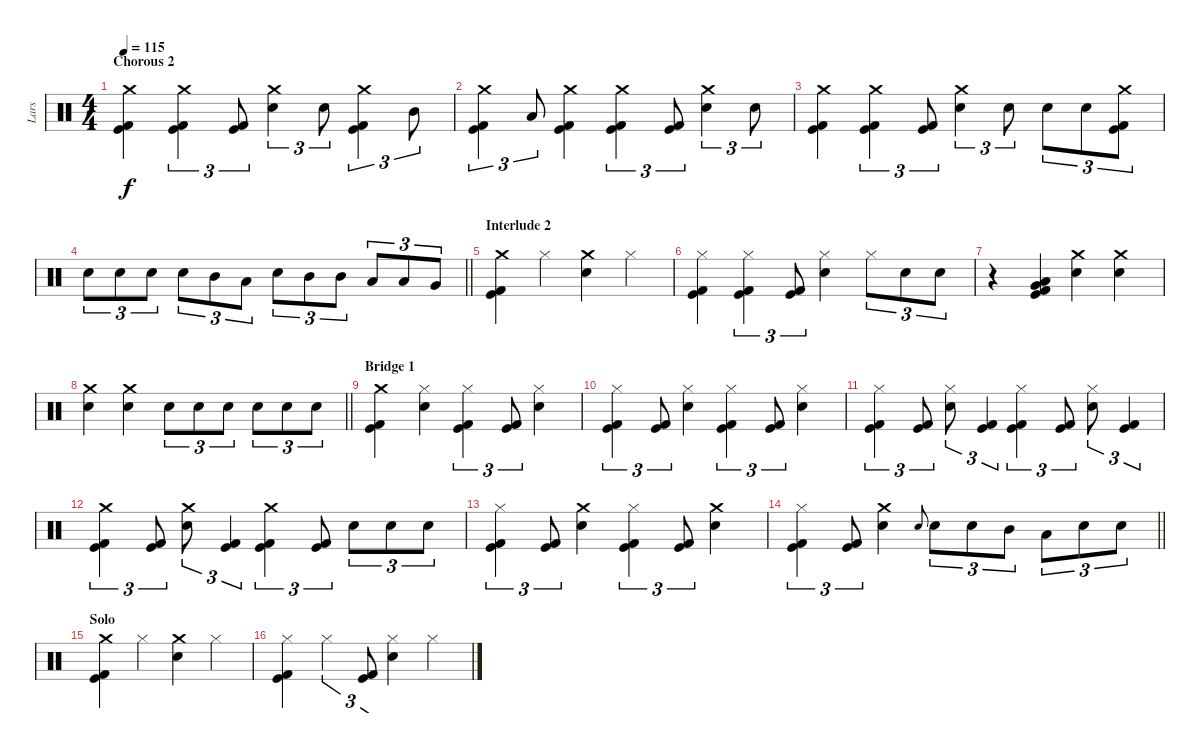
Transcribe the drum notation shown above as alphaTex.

\track ("Lars" "Lars") {instrument percussion}
\staff {score}
\articulation defaults
\ts (4 4)
\section ("" "Chorous 2")
\tempo 115
\clef neutral
\ks c
("Crash medium (hit)" "Kick (hit)" "Kick (hit) 2").4{dy f} ("Crash medium (hit)" "Kick (hit)" "Kick (hit) 2").4{tu (3 2)} ("Kick (hit)" "Kick (hit) 2").8{tu (3 2)} ("Crash medium (hit)" "Electric Snare (hit)").4{tu (3 2)} "Electric Snare (hit)".8{tu (3 2)} ("Crash medium (hit)" "Kick (hit)" "Kick (hit) 2").4{tu (3 2)} "Mid Tom (hit)".8{tu (3 2)} |
("Crash medium (hit)" "Kick (hit)" "Kick (hit) 2").4{tu (3 2)} "Low Tom (hit)".8{tu (3 2)} ("Crash medium (hit)" "Kick (hit)" "Kick (hit) 2").4 ("Crash medium (hit)" "Kick (hit)" "Kick (hit) 2").4{tu (3 2)} ("Kick (hit)" "Kick (hit) 2").8{tu (3 2)} ("Crash medium (hit)" "Electric Snare (hit)").4{tu (3 2)} "Electric Snare (hit)".8{tu (3 2)} |
("Crash medium (hit)" "Kick (hit)" "Kick (hit) 2").4 ("Crash medium (hit)" "Kick (hit)" "Kick (hit) 2").4{tu (3 2)} ("Kick (hit)" "Kick (hit) 2").8{tu (3 2)} ("Crash medium (hit)" "Electric Snare (hit)").4{tu (3 2)} "Electric Snare (hit)".8{tu (3 2)} "Electric Snare (hit)".8{tu (3 2)} "Electric Snare (hit)".8{tu (3 2)} ("Crash medium (hit)" "Kick (hit)" "Kick (hit) 2").8{tu (3 2)} |
\barLineRight lightlight "Electric Snare (hit)".8{tu (3 2)} "Electric Snare (hit)".8{tu (3 2)} "Electric Snare (hit)".8{tu (3 2)} "Electric Snare (hit)".8{tu (3 2)} "Mid Tom (hit)".8{tu (3 2)} "Low Tom (hit)".8{tu (3 2)} "Electric Snare (hit)".8{tu (3 2)} "Mid Tom (hit)".8{tu (3 2)} "Mid Tom (hit)".8{tu (3 2)} "Low Tom (hit)".8{tu (3 2)} "Low Tom (hit)".8{tu (3 2)} "Very Low Tom (hit)".8{tu (3 2)}
|
\section ("" "Interlude 2")
("Crash medium (hit)" "Kick (hit)" "Kick (hit) 2").4 "Hi-Hat (closed)".4 ("Crash medium (hit)" "Electric Snare (hit)").4 "Hi-Hat (closed)".4 |
("Hi-Hat (closed)" "Kick (hit)" "Kick (hit) 2").4 ("Hi-Hat (closed)" "Kick (hit)" "Kick (hit) 2").4{tu (3 2)} ("Kick (hit)" "Kick (hit) 2").8{tu (3 2)} ("Hi-Hat (closed)" "Electric Snare (hit)").4 "Hi-Hat (closed)".8{tu (3 2)} "Electric Snare (hit)".8{tu (3 2)} "Electric Snare (hit)".8{tu (3 2)} |
r.4 ("Very Low Tom (hit)" "Low Floor Tom (hit)" "Kick (hit)" "Kick (hit) 2").4 ("Crash medium (hit)" "Electric Snare (hit)").4 ("Crash medium (hit)" "Electric Snare (hit)").4 |
\barLineRight lightlight
("Crash medium (hit)" "Electric Snare (hit)").4 ("Crash medium (hit)" "Electric Snare (hit)").4 "Electric Snare (hit)".8{tu (3 2)} "Electric Snare (hit)".8{tu (3 2)} "Electric Snare (hit)".8{tu (3 2)} "Electric Snare (hit)".8{tu (3 2)} "Electric Snare (hit)".8{tu (3 2)} "Electric Snare (hit)".8{tu (3 2)} |
\section ("" "Bridge 1")
("Crash medium (hit)" "Kick (hit)" "Kick (hit) 2").4 ("Hi-Hat (closed)" "Electric Snare (hit)").4 ("Hi-Hat (closed)" "Kick (hit)" "Kick (hit) 2").4{tu (3 2)} ("Kick (hit)" "Kick (hit) 2").8{tu (3 2)} ("Hi-Hat (closed)" "Electric Snare (hit)").4 |
("Hi-Hat (closed)" "Kick (hit)" "Kick (hit) 2").4{tu (3 2)} ("Kick (hit)" "Kick (hit) 2").8{tu (3 2)} ("Hi-Hat (closed)" "Electric Snare (hit)").4 ("Hi-Hat (closed)" "Kick (hit)" "Kick (hit) 2").4{tu (3 2)} ("Kick (hit)" "Kick (hit) 2").8{tu (3 2)} ("Hi-Hat (closed)" "Electric Snare (hit)").4 |
("Hi-Hat (closed)" "Kick (hit)" "Kick (hit) 2").4{tu (3 2)} ("Kick (hit)" "Kick (hit) 2").8{tu (3 2)} ("Hi-Hat (closed)" "Electric Snare (hit)").8{tu (3 2)} ("Kick (hit)" "Kick (hit) 2").4{tu (3 2)} ("Hi-Hat (closed)" "Kick (hit)" "Kick (hit) 2").4{tu (3 2)} ("Kick (hit)" "Kick (hit) 2").8{tu (3 2)} ("Hi-Hat (closed)" "Electric Snare (hit)").8{tu (3 2)} ("Kick (hit)" "Kick (hit) 2").4{tu (3 2)} |
("Crash medium (hit)" "Kick (hit)" "Kick (hit) 2").4{tu (3 2)} ("Kick (hit)" "Kick (hit) 2").8{tu (3 2)} ("Crash medium (hit)" "Electric Snare (hit)").8{tu (3 2)} ("Kick (hit)" "Kick (hit) 2").4{tu (3 2)} ("Crash medium (hit)" "Kick (hit)" "Kick (hit) 2").4{tu (3 2)} ("Kick (hit)" "Kick (hit) 2").8{tu (3 2)} "Electric Snare (hit)".8{tu (3 2)} "Electric Snare (hit)".8{tu (3 2)} "Electric Snare (hit)".8{tu (3 2)} |
("Hi-Hat (closed)" "Kick (hit)" "Kick (hit) 2").4{tu (3 2)} ("Kick (hit)" "Kick (hit) 2").8{tu (3 2)} ("Crash medium (hit)" "Electric Snare (hit)").4 ("Hi-Hat (closed)" "Kick (hit)" "Kick (hit) 2").4{tu (3 2)} ("Kick (hit)" "Kick (hit) 2").8{tu (3 2)} ("Crash medium (hit)" "Electric Snare (hit)").4 |
\barLineRight lightlight
("Hi-Hat (closed)" "Kick (hit)" "Kick (hit) 2").4{tu (3 2)} ("Kick (hit)" "Kick (hit) 2").8{tu (3 2)} ("Crash medium (hit)" "Electric Snare (hit)").4 "Electric Snare (hit)".8{gr onbeat} "Electric Snare (hit)".8{tu (3 2)} "Electric Snare (hit)".8{tu (3 2)} "Mid Tom (hit)".8{tu (3 2)} "Low Tom (hit)".8{tu (3 2)} "Electric Snare (hit)".8{tu (3 2)} "Electric Snare (hit)".8{tu (3 2)} |
\section ("" "Solo")
("Crash medium (hit)" "Kick (hit)" "Kick (hit) 2").4 "Hi-Hat (closed)".4 ("Crash medium (hit)" "Electric Snare (hit)").4 "Hi-Hat (closed)".4 |
("Hi-Hat (closed)" "Kick (hit)" "Kick (hit) 2").4 "Hi-Hat (closed)".4{tu (3 2)} ("Kick (hit)" "Kick (hit) 2").8{tu (3 2)} ("Hi-Hat (closed)" "Electric Snare (hit)").4 "Hi-Hat (closed)".4
